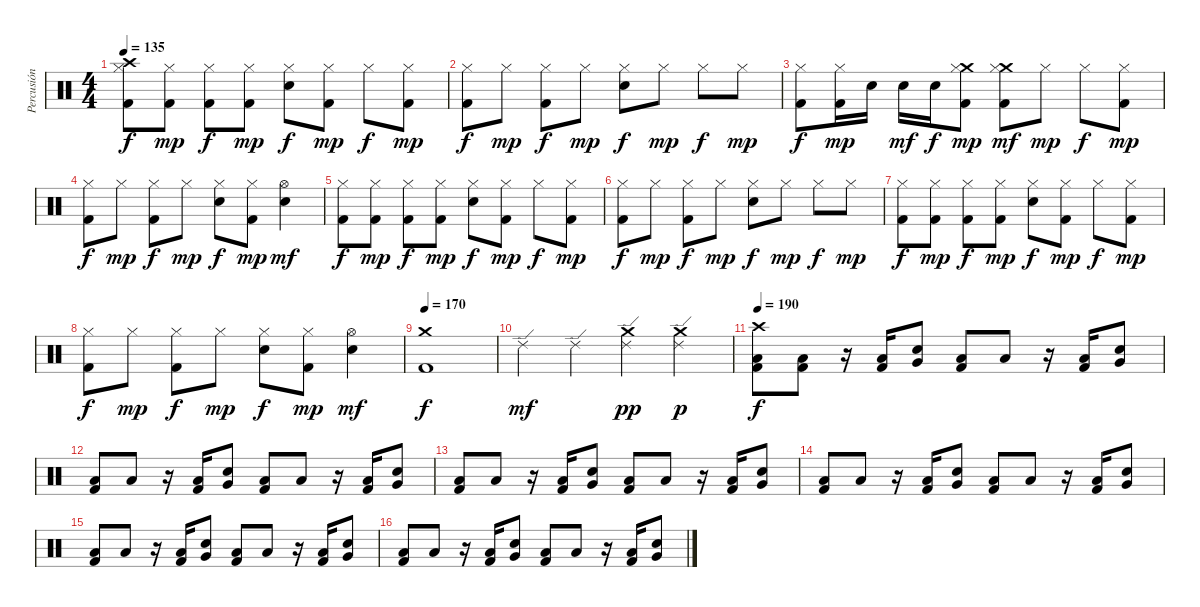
\track ("Percusión" "Percusión") {instrument percussion}
\staff {score}
\articulation defaults
\ts (4 4)
\tempo 135
\clef neutral
\ks c
("Crash high (hit)" "Hi-Hat (closed)" "Kick (hit) 2").8{dy f} ("Hi-Hat (closed)" "Kick (hit) 2").8{dy mp} ("Hi-Hat (closed)" "Kick (hit) 2").8{dy f} ("Hi-Hat (closed)" "Kick (hit) 2").8{dy mp} ("Hi-Hat (closed)" "Electric Snare (hit)").8{dy f} ("Hi-Hat (closed)" "Kick (hit) 2").8{dy mp} "Hi-Hat (closed)".8{dy f} ("Hi-Hat (closed)" "Kick (hit) 2").8{dy mp} |
("Hi-Hat (closed)" "Kick (hit) 2").8{dy f} "Hi-Hat (closed)".8{dy mp} ("Hi-Hat (closed)" "Kick (hit) 2").8{dy f} "Hi-Hat (closed)".8{dy mp} ("Hi-Hat (closed)" "Electric Snare (hit)").8{dy f} "Hi-Hat (closed)".8{dy mp} "Hi-Hat (closed)".8{dy f} "Hi-Hat (closed)".8{dy mp} |
("Hi-Hat (closed)" "Kick (hit) 2").8{dy f} ("Hi-Hat (closed)" "Kick (hit) 2").16{dy mp} "Electric Snare (hit)".16 "Electric Snare (hit)".16{dy mf} "Electric Snare (hit)".16{dy f} ("Crash medium (hit)" "Hi-Hat (closed)" "Kick (hit) 2").8{dy mp} ("Crash medium (hit)" "Hi-Hat (closed)" "Kick (hit) 2").8{dy mf} "Hi-Hat (closed)".8{dy mp} "Hi-Hat (closed)".8{dy f} ("Hi-Hat (closed)" "Kick (hit) 2").8{dy mp} |
("Hi-Hat (closed)" "Kick (hit) 2").8{dy f} "Hi-Hat (closed)".8{dy mp} ("Hi-Hat (closed)" "Kick (hit) 2").8{dy f} "Hi-Hat (closed)".8{dy mp} ("Hi-Hat (closed)" "Electric Snare (hit)").8{dy f} ("Hi-Hat (closed)" "Kick (hit) 2").8{dy mp} ("Hi-Hat (open)" "Electric Snare (hit)").4{dy mf} |
("Hi-Hat (closed)" "Kick (hit) 2").8{dy f} ("Hi-Hat (closed)" "Kick (hit) 2").8{dy mp} ("Hi-Hat (closed)" "Kick (hit) 2").8{dy f} ("Hi-Hat (closed)" "Kick (hit) 2").8{dy mp} ("Hi-Hat (closed)" "Electric Snare (hit)").8{dy f} ("Hi-Hat (closed)" "Kick (hit) 2").8{dy mp} "Hi-Hat (closed)".8{dy f} ("Hi-Hat (closed)" "Kick (hit) 2").8{dy mp} |
("Hi-Hat (closed)" "Kick (hit) 2").8{dy f} "Hi-Hat (closed)".8{dy mp} ("Hi-Hat (closed)" "Kick (hit) 2").8{dy f} "Hi-Hat (closed)".8{dy mp} ("Hi-Hat (closed)" "Electric Snare (hit)").8{dy f} "Hi-Hat (closed)".8{dy mp} "Hi-Hat (closed)".8{dy f} "Hi-Hat (closed)".8{dy mp} |
("Hi-Hat (closed)" "Kick (hit) 2").8{dy f} ("Hi-Hat (closed)" "Kick (hit) 2").8{dy mp} ("Hi-Hat (closed)" "Kick (hit) 2").8{dy f} ("Hi-Hat (closed)" "Kick (hit) 2").8{dy mp} ("Hi-Hat (closed)" "Electric Snare (hit)").8{dy f} ("Hi-Hat (closed)" "Kick (hit) 2").8{dy mp} "Hi-Hat (closed)".8{dy f} ("Hi-Hat (closed)" "Kick (hit) 2").8{dy mp} |
("Hi-Hat (closed)" "Kick (hit) 2").8{dy f} "Hi-Hat (closed)".8{dy mp} ("Hi-Hat (closed)" "Kick (hit) 2").8{dy f} "Hi-Hat (closed)".8{dy mp} ("Hi-Hat (closed)" "Electric Snare (hit)").8{dy f} ("Hi-Hat (closed)" "Kick (hit) 2").8{dy mp} ("Hi-Hat (open)" "Electric Snare (hit)").4{dy mf} |
\tempo 170
("Crash medium (hit)" "Kick (hit) 2").1{dy f} |
"Ride (edge) 2".4{dy mf} "Ride (edge) 2".4 ("Crash medium (hit)" "Ride (edge) 2").4{dy pp} ("Crash medium (hit)" "Ride (edge) 2").4{dy p} |
\tempo 190
("Crash high (hit)" "Low Floor Tom (hit)" "Kick (hit) 2").8{dy f} ("Low Floor Tom (hit)" "Kick (hit) 2").8 r.16 ("Low Floor Tom (hit)" "Kick (hit) 2").16 ("Very Low Tom (hit)" "Electric Snare (hit)").8 ("Low Floor Tom (hit)" "Kick (hit) 2").8 "Low Floor Tom (hit)".8 r.16 ("Low Floor Tom (hit)" "Kick (hit) 2").16 ("Very Low Tom (hit)" "Electric Snare (hit)").8 |
("Low Floor Tom (hit)" "Kick (hit) 2").8 "Low Floor Tom (hit)".8 r.16 ("Low Floor Tom (hit)" "Kick (hit) 2").16 ("Very Low Tom (hit)" "Electric Snare (hit)").8 ("Low Floor Tom (hit)" "Kick (hit) 2").8 "Low Floor Tom (hit)".8 r.16 ("Low Floor Tom (hit)" "Kick (hit) 2").16 ("Very Low Tom (hit)" "Electric Snare (hit)").8 |
("Low Floor Tom (hit)" "Kick (hit) 2").8 "Low Floor Tom (hit)".8 r.16 ("Low Floor Tom (hit)" "Kick (hit) 2").16 ("Very Low Tom (hit)" "Electric Snare (hit)").8 ("Low Floor Tom (hit)" "Kick (hit) 2").8 "Low Floor Tom (hit)".8 r.16 ("Low Floor Tom (hit)" "Kick (hit) 2").16 ("Very Low Tom (hit)" "Electric Snare (hit)").8 |
("Low Floor Tom (hit)" "Kick (hit) 2").8 "Low Floor Tom (hit)".8 r.16 ("Low Floor Tom (hit)" "Kick (hit) 2").16 ("Very Low Tom (hit)" "Electric Snare (hit)").8 ("Low Floor Tom (hit)" "Kick (hit) 2").8 "Low Floor Tom (hit)".8 r.16 ("Low Floor Tom (hit)" "Kick (hit) 2").16 ("Very Low Tom (hit)" "Electric Snare (hit)").8 |
("Low Floor Tom (hit)" "Kick (hit) 2").8 "Low Floor Tom (hit)".8 r.16 ("Low Floor Tom (hit)" "Kick (hit) 2").16 ("Very Low Tom (hit)" "Electric Snare (hit)").8 ("Low Floor Tom (hit)" "Kick (hit) 2").8 "Low Floor Tom (hit)".8 r.16 ("Low Floor Tom (hit)" "Kick (hit) 2").16 ("Very Low Tom (hit)" "Electric Snare (hit)").8 |
("Low Floor Tom (hit)" "Kick (hit) 2").8 "Low Floor Tom (hit)".8 r.16 ("Low Floor Tom (hit)" "Kick (hit) 2").16 ("Very Low Tom (hit)" "Electric Snare (hit)").8 ("Low Floor Tom (hit)" "Kick (hit) 2").8 "Low Floor Tom (hit)".8 r.16 ("Low Floor Tom (hit)" "Kick (hit) 2").16 ("Very Low Tom (hit)" "Electric Snare (hit)").8
